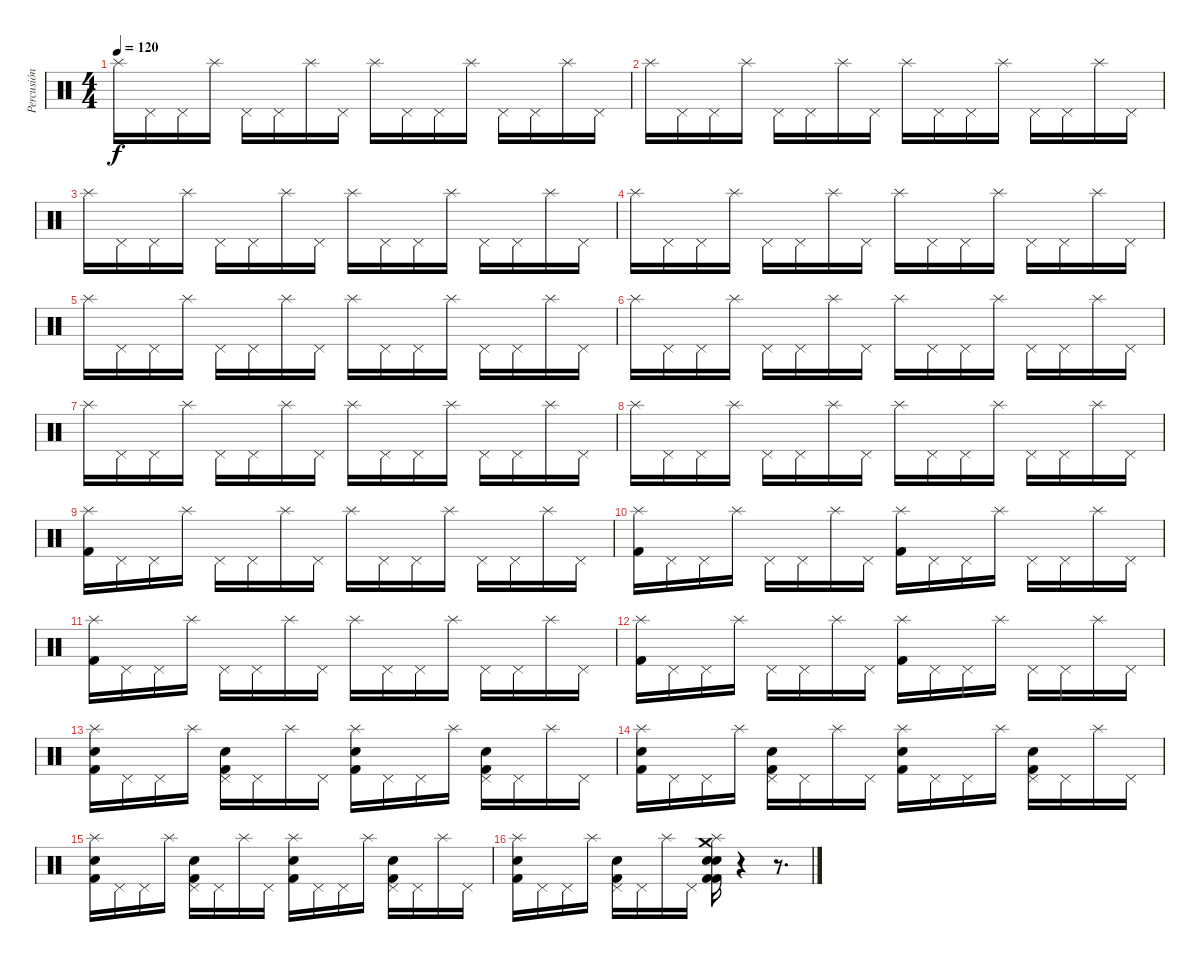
\track ("Percusión" "Percusión") {instrument percussion}
\staff {score}
\articulation defaults
\ts (4 4)
\tempo 120
\clef neutral
\ks c "Splash (hit)".16{dy f} "Pedal Hi-Hat (hit)".16 "Pedal Hi-Hat (hit)".16 "Splash (hit)".16 "Pedal Hi-Hat (hit)".16 "Pedal Hi-Hat (hit)".16 "Splash (hit)".16 "Pedal Hi-Hat (hit)".16 "Splash (hit)".16 "Pedal Hi-Hat (hit)".16 "Pedal Hi-Hat (hit)".16 "Splash (hit)".16 "Pedal Hi-Hat (hit)".16 "Pedal Hi-Hat (hit)".16 "Splash (hit)".16 "Pedal Hi-Hat (hit)".16
|
"Splash (hit)".16 "Pedal Hi-Hat (hit)".16 "Pedal Hi-Hat (hit)".16 "Splash (hit)".16 "Pedal Hi-Hat (hit)".16 "Pedal Hi-Hat (hit)".16 "Splash (hit)".16 "Pedal Hi-Hat (hit)".16 "Splash (hit)".16 "Pedal Hi-Hat (hit)".16 "Pedal Hi-Hat (hit)".16 "Splash (hit)".16 "Pedal Hi-Hat (hit)".16 "Pedal Hi-Hat (hit)".16 "Splash (hit)".16 "Pedal Hi-Hat (hit)".16 |
"Splash (hit)".16 "Pedal Hi-Hat (hit)".16 "Pedal Hi-Hat (hit)".16 "Splash (hit)".16 "Pedal Hi-Hat (hit)".16 "Pedal Hi-Hat (hit)".16 "Splash (hit)".16 "Pedal Hi-Hat (hit)".16 "Splash (hit)".16 "Pedal Hi-Hat (hit)".16 "Pedal Hi-Hat (hit)".16 "Splash (hit)".16 "Pedal Hi-Hat (hit)".16 "Pedal Hi-Hat (hit)".16 "Splash (hit)".16 "Pedal Hi-Hat (hit)".16 |
"Splash (hit)".16 "Pedal Hi-Hat (hit)".16 "Pedal Hi-Hat (hit)".16 "Splash (hit)".16 "Pedal Hi-Hat (hit)".16 "Pedal Hi-Hat (hit)".16 "Splash (hit)".16 "Pedal Hi-Hat (hit)".16 "Splash (hit)".16 "Pedal Hi-Hat (hit)".16 "Pedal Hi-Hat (hit)".16 "Splash (hit)".16 "Pedal Hi-Hat (hit)".16 "Pedal Hi-Hat (hit)".16 "Splash (hit)".16 "Pedal Hi-Hat (hit)".16 |
"Splash (hit)".16 "Pedal Hi-Hat (hit)".16 "Pedal Hi-Hat (hit)".16 "Splash (hit)".16 "Pedal Hi-Hat (hit)".16 "Pedal Hi-Hat (hit)".16 "Splash (hit)".16 "Pedal Hi-Hat (hit)".16 "Splash (hit)".16 "Pedal Hi-Hat (hit)".16 "Pedal Hi-Hat (hit)".16 "Splash (hit)".16 "Pedal Hi-Hat (hit)".16 "Pedal Hi-Hat (hit)".16 "Splash (hit)".16 "Pedal Hi-Hat (hit)".16 |
"Splash (hit)".16 "Pedal Hi-Hat (hit)".16 "Pedal Hi-Hat (hit)".16 "Splash (hit)".16 "Pedal Hi-Hat (hit)".16 "Pedal Hi-Hat (hit)".16 "Splash (hit)".16 "Pedal Hi-Hat (hit)".16 "Splash (hit)".16 "Pedal Hi-Hat (hit)".16 "Pedal Hi-Hat (hit)".16 "Splash (hit)".16 "Pedal Hi-Hat (hit)".16 "Pedal Hi-Hat (hit)".16 "Splash (hit)".16 "Pedal Hi-Hat (hit)".16 |
"Splash (hit)".16 "Pedal Hi-Hat (hit)".16 "Pedal Hi-Hat (hit)".16 "Splash (hit)".16 "Pedal Hi-Hat (hit)".16 "Pedal Hi-Hat (hit)".16 "Splash (hit)".16 "Pedal Hi-Hat (hit)".16 "Splash (hit)".16 "Pedal Hi-Hat (hit)".16 "Pedal Hi-Hat (hit)".16 "Splash (hit)".16 "Pedal Hi-Hat (hit)".16 "Pedal Hi-Hat (hit)".16 "Splash (hit)".16 "Pedal Hi-Hat (hit)".16 |
"Splash (hit)".16 "Pedal Hi-Hat (hit)".16 "Pedal Hi-Hat (hit)".16 "Splash (hit)".16 "Pedal Hi-Hat (hit)".16 "Pedal Hi-Hat (hit)".16 "Splash (hit)".16 "Pedal Hi-Hat (hit)".16 "Splash (hit)".16 "Pedal Hi-Hat (hit)".16 "Pedal Hi-Hat (hit)".16 "Splash (hit)".16 "Pedal Hi-Hat (hit)".16 "Pedal Hi-Hat (hit)".16 "Splash (hit)".16 "Pedal Hi-Hat (hit)".16 |
("Splash (hit)" "Kick (hit) 2").16 "Pedal Hi-Hat (hit)".16 "Pedal Hi-Hat (hit)".16 "Splash (hit)".16 "Pedal Hi-Hat (hit)".16 "Pedal Hi-Hat (hit)".16 "Splash (hit)".16 "Pedal Hi-Hat (hit)".16 "Splash (hit)".16 "Pedal Hi-Hat (hit)".16 "Pedal Hi-Hat (hit)".16 "Splash (hit)".16 "Pedal Hi-Hat (hit)".16 "Pedal Hi-Hat (hit)".16 "Splash (hit)".16 "Pedal Hi-Hat (hit)".16 |
("Splash (hit)" "Kick (hit) 2").16 "Pedal Hi-Hat (hit)".16 "Pedal Hi-Hat (hit)".16 "Splash (hit)".16 "Pedal Hi-Hat (hit)".16 "Pedal Hi-Hat (hit)".16 "Splash (hit)".16 "Pedal Hi-Hat (hit)".16 ("Splash (hit)" "Kick (hit) 2").16 "Pedal Hi-Hat (hit)".16 "Pedal Hi-Hat (hit)".16 "Splash (hit)".16 "Pedal Hi-Hat (hit)".16 "Pedal Hi-Hat (hit)".16 "Splash (hit)".16 "Pedal Hi-Hat (hit)".16 |
("Splash (hit)" "Kick (hit) 2").16 "Pedal Hi-Hat (hit)".16 "Pedal Hi-Hat (hit)".16 "Splash (hit)".16 "Pedal Hi-Hat (hit)".16 "Pedal Hi-Hat (hit)".16 "Splash (hit)".16 "Pedal Hi-Hat (hit)".16 "Splash (hit)".16 "Pedal Hi-Hat (hit)".16 "Pedal Hi-Hat (hit)".16 "Splash (hit)".16 "Pedal Hi-Hat (hit)".16 "Pedal Hi-Hat (hit)".16 "Splash (hit)".16 "Pedal Hi-Hat (hit)".16 |
("Splash (hit)" "Kick (hit) 2").16 "Pedal Hi-Hat (hit)".16 "Pedal Hi-Hat (hit)".16 "Splash (hit)".16 "Pedal Hi-Hat (hit)".16 "Pedal Hi-Hat (hit)".16 "Splash (hit)".16 "Pedal Hi-Hat (hit)".16 ("Splash (hit)" "Kick (hit) 2").16 "Pedal Hi-Hat (hit)".16 "Pedal Hi-Hat (hit)".16 "Splash (hit)".16 "Pedal Hi-Hat (hit)".16 "Pedal Hi-Hat (hit)".16 "Splash (hit)".16 "Pedal Hi-Hat (hit)".16 |
("Splash (hit)" "Kick (hit) 2" "Electric Snare (hit)").16 "Pedal Hi-Hat (hit)".16 "Pedal Hi-Hat (hit)".16 "Splash (hit)".16 ("Pedal Hi-Hat (hit)" "Kick (hit) 2" "Electric Snare (hit)").16 "Pedal Hi-Hat (hit)".16 "Splash (hit)".16 "Pedal Hi-Hat (hit)".16 ("Splash (hit)" "Kick (hit) 2" "Electric Snare (hit)").16 "Pedal Hi-Hat (hit)".16 "Pedal Hi-Hat (hit)".16 "Splash (hit)".16 ("Pedal Hi-Hat (hit)" "Kick (hit) 2" "Electric Snare (hit)").16 "Pedal Hi-Hat (hit)".16 "Splash (hit)".16 "Pedal Hi-Hat (hit)".16 |
("Splash (hit)" "Kick (hit) 2" "Electric Snare (hit)").16 "Pedal Hi-Hat (hit)".16 "Pedal Hi-Hat (hit)".16 "Splash (hit)".16 ("Pedal Hi-Hat (hit)" "Kick (hit) 2" "Electric Snare (hit)").16 "Pedal Hi-Hat (hit)".16 "Splash (hit)".16 "Pedal Hi-Hat (hit)".16 ("Splash (hit)" "Kick (hit) 2" "Electric Snare (hit)").16 "Pedal Hi-Hat (hit)".16 "Pedal Hi-Hat (hit)".16 "Splash (hit)".16 ("Pedal Hi-Hat (hit)" "Kick (hit) 2" "Electric Snare (hit)").16 "Pedal Hi-Hat (hit)".16 "Splash (hit)".16 "Pedal Hi-Hat (hit)".16 |
("Splash (hit)" "Kick (hit) 2" "Electric Snare (hit)").16 "Pedal Hi-Hat (hit)".16 "Pedal Hi-Hat (hit)".16 "Splash (hit)".16 ("Pedal Hi-Hat (hit)" "Kick (hit) 2" "Electric Snare (hit)").16 "Pedal Hi-Hat (hit)".16 "Splash (hit)".16 "Pedal Hi-Hat (hit)".16 ("Splash (hit)" "Kick (hit) 2" "Electric Snare (hit)").16 "Pedal Hi-Hat (hit)".16 "Pedal Hi-Hat (hit)".16 "Splash (hit)".16 ("Pedal Hi-Hat (hit)" "Kick (hit) 2" "Electric Snare (hit)").16 "Pedal Hi-Hat (hit)".16 "Splash (hit)".16 "Pedal Hi-Hat (hit)".16 |
("Splash (hit)" "Kick (hit) 2" "Electric Snare (hit)").16 "Pedal Hi-Hat (hit)".16 "Pedal Hi-Hat (hit)".16 "Splash (hit)".16 ("Pedal Hi-Hat (hit)" "Kick (hit) 2" "Electric Snare (hit)").16 "Pedal Hi-Hat (hit)".16 "Splash (hit)".16 "Pedal Hi-Hat (hit)".16 ("Splash (hit)" "Kick (hit) 2" "Crash medium (hit)" "Electric Snare (hit)" "Kick (hit) 2" "Electric Snare (hit)").16 r.4 r.8{d}
